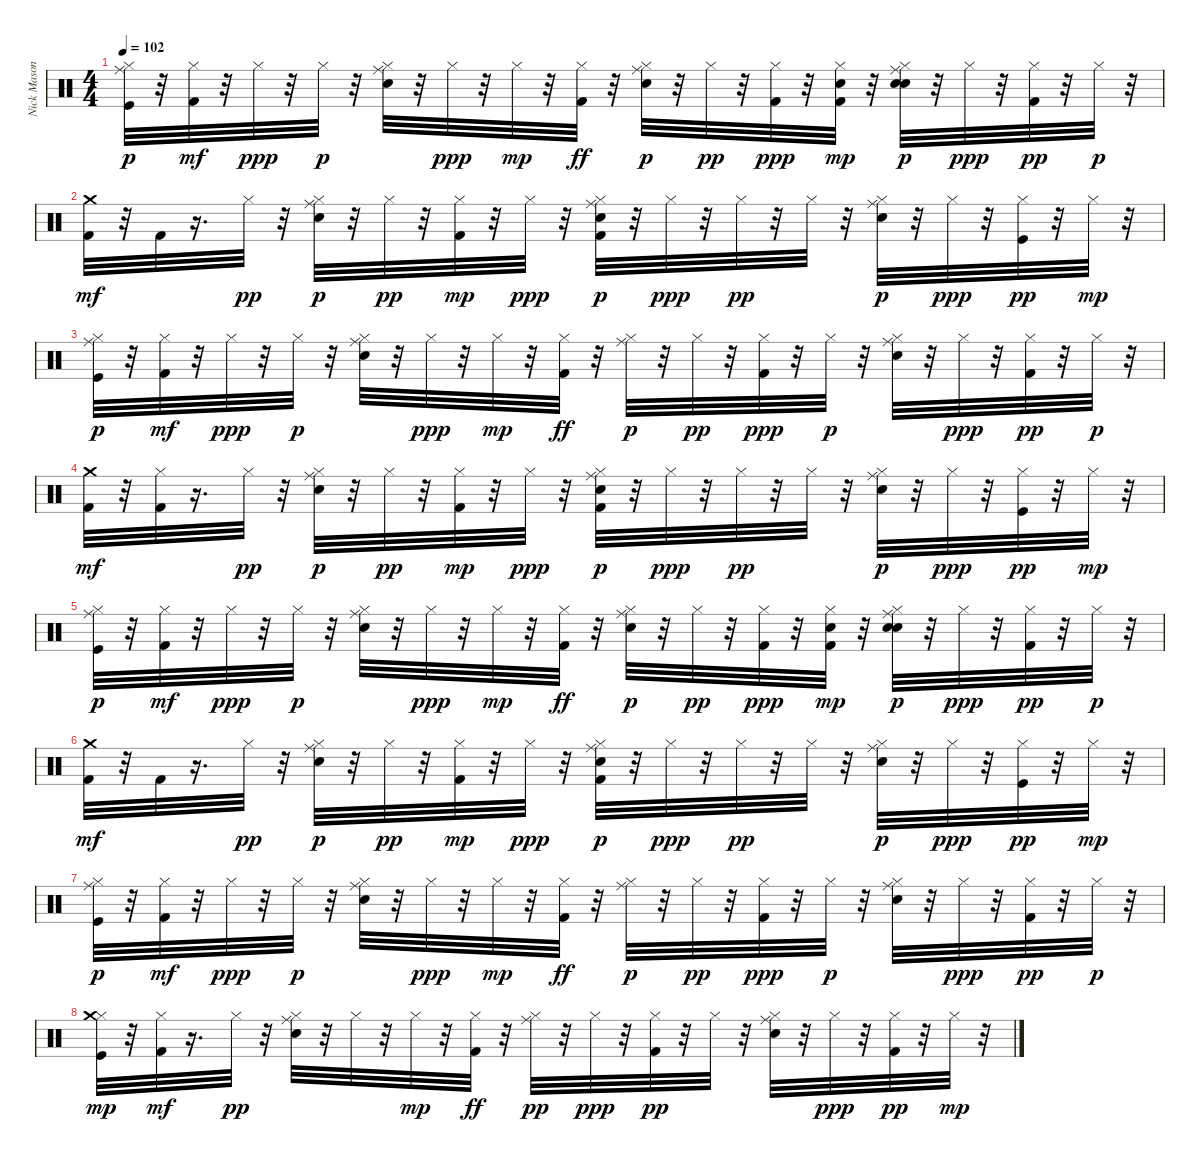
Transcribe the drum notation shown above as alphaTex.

\track ("Nick Mason / Gary Wallis" "Nick Mason") {instrument percussion}
\staff {score}
\articulation defaults
\ts (4 4)
\tempo 102
\clef neutral
\ks c
("Kick (hit)" "Hi-Hat (closed)" "Ride (middle)").32{dy p} r.32 ("Hi-Hat (closed)" "Kick (hit) 2").32{dy mf} r.32 "Hi-Hat (closed)".32{dy ppp} r.32 "Hi-Hat (closed)".32{dy p} r.32 ("Snare (hit) 2" "Hi-Hat (closed)" "Ride (middle)").32 r.32 "Hi-Hat (closed)".32{dy ppp} r.32 "Hi-Hat (closed)".32{dy mp} r.32 ("Hi-Hat (closed)" "Kick (hit) 2").32{dy ff} r.32 ("Electric Snare (hit)" "Hi-Hat (closed)" "Ride (middle)").32{dy p} r.32 "Hi-Hat (closed)".32{dy pp} r.32 ("Hi-Hat (closed)" "Kick (hit) 2").32{dy ppp} r.32 ("Electric Snare (hit)" "Hi-Hat (closed)" "Kick (hit) 2").32{dy mp} r.32 ("Snare (hit) 2" "Electric Snare (hit)" "Hi-Hat (closed)" "Ride (middle)").32{dy p} r.32 "Hi-Hat (closed)".32{dy ppp} r.32 ("Kick (hit) 2" "Hi-Hat (closed)").32{dy pp} r.32 "Hi-Hat (closed)".32{dy p} r.32 |
("Kick (hit) 2" "Crash medium (hit)").32{dy mf} r.32 "Kick (hit) 2".32 r.16{d} "Hi-Hat (closed)".32{dy pp} r.32 ("Snare (hit) 2" "Hi-Hat (closed)" "Ride (middle)").32{dy p} r.32 "Hi-Hat (closed)".32{dy pp} r.32 ("Kick (hit) 2" "Hi-Hat (closed)").32{dy mp} r.32 "Hi-Hat (closed)".32{dy ppp} r.32 ("Kick (hit) 2" "Electric Snare (hit)" "Hi-Hat (closed)" "Ride (middle)").32{dy p} r.32 "Hi-Hat (closed)".32{dy ppp} r.32 "Hi-Hat (closed)".32{dy pp} r.32 "Hi-Hat (closed)".32 r.32 ("Snare (hit) 2" "Hi-Hat (closed)" "Ride (middle)").32{dy p} r.32 "Hi-Hat (closed)".32{dy ppp} r.32 ("Kick (hit)" "Hi-Hat (closed)").32{dy pp} r.32 "Hi-Hat (closed)".32{dy mp} r.32 |
("Kick (hit)" "Hi-Hat (closed)" "Ride (middle)").32{dy p} r.32 ("Hi-Hat (closed)" "Kick (hit) 2").32{dy mf} r.32 "Hi-Hat (closed)".32{dy ppp} r.32 "Hi-Hat (closed)".32{dy p} r.32 ("Snare (hit) 2" "Hi-Hat (closed)" "Ride (middle)").32 r.32 "Hi-Hat (closed)".32{dy ppp} r.32 "Hi-Hat (closed)".32{dy mp} r.32 ("Hi-Hat (closed)" "Kick (hit) 2").32{dy ff} r.32 ("Hi-Hat (closed)" "Ride (middle)").32{dy p} r.32 "Hi-Hat (closed)".32{dy pp} r.32 ("Hi-Hat (closed)" "Kick (hit) 2").32{dy ppp} r.32 "Hi-Hat (closed)".32{dy p} r.32 ("Snare (hit) 2" "Hi-Hat (closed)" "Ride (middle)").32 r.32 "Hi-Hat (closed)".32{dy ppp} r.32 ("Kick (hit) 2" "Hi-Hat (closed)").32{dy pp} r.32 "Hi-Hat (closed)".32{dy p} r.32 |
("Kick (hit) 2" "Crash medium (hit)").32{dy mf} r.32 ("Hi-Hat (closed)" "Kick (hit) 2").32 r.16{d} "Hi-Hat (closed)".32{dy pp} r.32 ("Snare (hit) 2" "Hi-Hat (closed)" "Ride (middle)").32{dy p} r.32 "Hi-Hat (closed)".32{dy pp} r.32 ("Kick (hit) 2" "Hi-Hat (closed)").32{dy mp} r.32 "Hi-Hat (closed)".32{dy ppp} r.32 ("Kick (hit) 2" "Electric Snare (hit)" "Hi-Hat (closed)" "Ride (middle)").32{dy p} r.32 "Hi-Hat (closed)".32{dy ppp} r.32 "Hi-Hat (closed)".32{dy pp} r.32 "Hi-Hat (closed)".32 r.32 ("Snare (hit) 2" "Hi-Hat (closed)" "Ride (middle)").32{dy p} r.32 "Hi-Hat (closed)".32{dy ppp} r.32 ("Kick (hit)" "Hi-Hat (closed)").32{dy pp} r.32 "Hi-Hat (closed)".32{dy mp} r.32 |
("Kick (hit)" "Hi-Hat (closed)" "Ride (middle)").32{dy p} r.32 ("Hi-Hat (closed)" "Kick (hit) 2").32{dy mf} r.32 "Hi-Hat (closed)".32{dy ppp} r.32 "Hi-Hat (closed)".32{dy p} r.32 ("Snare (hit) 2" "Hi-Hat (closed)" "Ride (middle)").32 r.32 "Hi-Hat (closed)".32{dy ppp} r.32 "Hi-Hat (closed)".32{dy mp} r.32 ("Hi-Hat (closed)" "Kick (hit) 2").32{dy ff} r.32 ("Electric Snare (hit)" "Hi-Hat (closed)" "Ride (middle)").32{dy p} r.32 "Hi-Hat (closed)".32{dy pp} r.32 ("Hi-Hat (closed)" "Kick (hit) 2").32{dy ppp} r.32 ("Electric Snare (hit)" "Hi-Hat (closed)" "Kick (hit) 2").32{dy mp} r.32 ("Snare (hit) 2" "Electric Snare (hit)" "Hi-Hat (closed)" "Ride (middle)").32{dy p} r.32 "Hi-Hat (closed)".32{dy ppp} r.32 ("Kick (hit) 2" "Hi-Hat (closed)").32{dy pp} r.32 "Hi-Hat (closed)".32{dy p} r.32 |
("Kick (hit) 2" "Crash medium (hit)").32{dy mf} r.32 "Kick (hit) 2".32 r.16{d} "Hi-Hat (closed)".32{dy pp} r.32 ("Snare (hit) 2" "Hi-Hat (closed)" "Ride (middle)").32{dy p} r.32 "Hi-Hat (closed)".32{dy pp} r.32 ("Kick (hit) 2" "Hi-Hat (closed)").32{dy mp} r.32 "Hi-Hat (closed)".32{dy ppp} r.32 ("Kick (hit) 2" "Electric Snare (hit)" "Hi-Hat (closed)" "Ride (middle)").32{dy p} r.32 "Hi-Hat (closed)".32{dy ppp} r.32 "Hi-Hat (closed)".32{dy pp} r.32 "Hi-Hat (closed)".32 r.32 ("Snare (hit) 2" "Hi-Hat (closed)" "Ride (middle)").32{dy p} r.32 "Hi-Hat (closed)".32{dy ppp} r.32 ("Kick (hit)" "Hi-Hat (closed)").32{dy pp} r.32 "Hi-Hat (closed)".32{dy mp} r.32 |
("Kick (hit)" "Hi-Hat (closed)" "Ride (middle)").32{dy p} r.32 ("Hi-Hat (closed)" "Kick (hit) 2").32{dy mf} r.32 "Hi-Hat (closed)".32{dy ppp} r.32 "Hi-Hat (closed)".32{dy p} r.32 ("Snare (hit) 2" "Hi-Hat (closed)" "Ride (middle)").32 r.32 "Hi-Hat (closed)".32{dy ppp} r.32 "Hi-Hat (closed)".32{dy mp} r.32 ("Hi-Hat (closed)" "Kick (hit) 2").32{dy ff} r.32 ("Hi-Hat (closed)" "Ride (middle)").32{dy p} r.32 "Hi-Hat (closed)".32{dy pp} r.32 ("Hi-Hat (closed)" "Kick (hit) 2").32{dy ppp} r.32 "Hi-Hat (closed)".32{dy p} r.32 ("Snare (hit) 2" "Hi-Hat (closed)" "Ride (middle)").32 r.32 "Hi-Hat (closed)".32{dy ppp} r.32 ("Kick (hit) 2" "Hi-Hat (closed)").32{dy pp} r.32 "Hi-Hat (closed)".32{dy p} r.32 |
("Kick (hit)" "Hi-Hat (closed)" "Crash medium (hit)").32{dy mp} r.32 ("Hi-Hat (closed)" "Kick (hit) 2").32{dy mf} r.16{d} "Hi-Hat (closed)".32{dy pp} r.32 ("Snare (hit) 2" "Hi-Hat (closed)" "Ride (middle)").32 r.32 "Hi-Hat (closed)".32 r.32 "Hi-Hat (closed)".32{dy mp} r.32 ("Hi-Hat (closed)" "Kick (hit) 2").32{dy ff} r.32 ("Hi-Hat (closed)" "Ride (middle)").32{dy pp} r.32 "Hi-Hat (closed)".32{dy ppp} r.32 ("Hi-Hat (closed)" "Kick (hit) 2").32{dy pp} r.32 "Hi-Hat (closed)".32 r.32 ("Snare (hit) 2" "Hi-Hat (closed)" "Ride (middle)").32 r.32 "Hi-Hat (closed)".32{dy ppp} r.32 ("Kick (hit) 2" "Hi-Hat (closed)").32{dy pp} r.32 "Hi-Hat (closed)".32{dy mp} r.32
